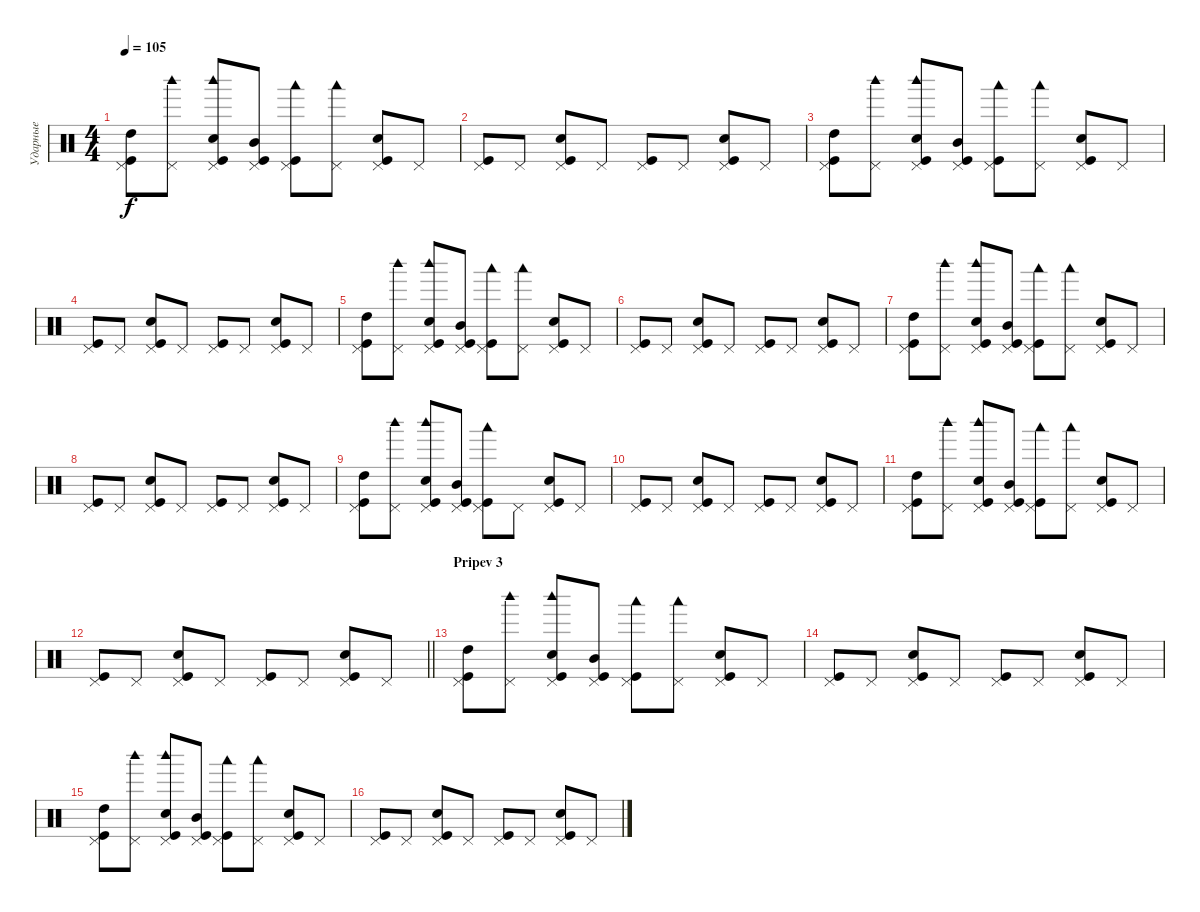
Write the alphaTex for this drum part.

\track ("Ударные" "Ударные") {instrument percussion}
\staff {score}
\articulation defaults
\ts (4 4)
\tempo 105
\clef neutral
\ks c
("Pedal Hi-Hat (hit)" "Kick (hit)" "High Tom (hit)").8{dy f} ("Pedal Hi-Hat (hit)" "Woodblock high (hit)").8 ("Pedal Hi-Hat (hit)" "Kick (hit)" "Snare (hit) 2" "Woodblock high (hit)").8 ("Pedal Hi-Hat (hit)" "Kick (hit)" "Mid Tom (hit)").8 ("Pedal Hi-Hat (hit)" "Kick (hit)" "Woodblock low (hit)").8 ("Pedal Hi-Hat (hit)" "Woodblock low (hit)").8 ("Pedal Hi-Hat (hit)" "Kick (hit)" "Snare (hit) 2").8 "Pedal Hi-Hat (hit)".8 |
("Pedal Hi-Hat (hit)" "Kick (hit)").8 "Pedal Hi-Hat (hit)".8 ("Pedal Hi-Hat (hit)" "Kick (hit)" "Snare (hit) 2").8 "Pedal Hi-Hat (hit)".8 ("Pedal Hi-Hat (hit)" "Kick (hit)").8 "Pedal Hi-Hat (hit)".8 ("Pedal Hi-Hat (hit)" "Kick (hit)" "Snare (hit) 2").8 "Pedal Hi-Hat (hit)".8 |
("Pedal Hi-Hat (hit)" "Kick (hit)" "High Tom (hit)").8 ("Pedal Hi-Hat (hit)" "Woodblock high (hit)").8 ("Pedal Hi-Hat (hit)" "Kick (hit)" "Woodblock high (hit)" "Snare (hit) 2").8 ("Pedal Hi-Hat (hit)" "Kick (hit)" "Mid Tom (hit)").8 ("Pedal Hi-Hat (hit)" "Kick (hit)" "Woodblock low (hit)").8 ("Pedal Hi-Hat (hit)" "Woodblock low (hit)").8 ("Pedal Hi-Hat (hit)" "Kick (hit)" "Snare (hit) 2").8 "Pedal Hi-Hat (hit)".8 |
("Pedal Hi-Hat (hit)" "Kick (hit)").8 "Pedal Hi-Hat (hit)".8 ("Pedal Hi-Hat (hit)" "Kick (hit)" "Snare (hit) 2").8 "Pedal Hi-Hat (hit)".8 ("Pedal Hi-Hat (hit)" "Kick (hit)").8 "Pedal Hi-Hat (hit)".8 ("Pedal Hi-Hat (hit)" "Kick (hit)" "Snare (hit) 2").8 "Pedal Hi-Hat (hit)".8 |
("Pedal Hi-Hat (hit)" "Kick (hit)" "High Tom (hit)").8 ("Pedal Hi-Hat (hit)" "Woodblock high (hit)").8 ("Pedal Hi-Hat (hit)" "Kick (hit)" "Snare (hit) 2" "Woodblock high (hit)").8 ("Pedal Hi-Hat (hit)" "Kick (hit)" "Mid Tom (hit)").8 ("Pedal Hi-Hat (hit)" "Kick (hit)" "Woodblock low (hit)").8 ("Pedal Hi-Hat (hit)" "Woodblock low (hit)").8 ("Pedal Hi-Hat (hit)" "Kick (hit)" "Snare (hit) 2").8 "Pedal Hi-Hat (hit)".8 |
("Pedal Hi-Hat (hit)" "Kick (hit)").8 "Pedal Hi-Hat (hit)".8 ("Pedal Hi-Hat (hit)" "Kick (hit)" "Snare (hit) 2").8 "Pedal Hi-Hat (hit)".8 ("Pedal Hi-Hat (hit)" "Kick (hit)").8 "Pedal Hi-Hat (hit)".8 ("Pedal Hi-Hat (hit)" "Kick (hit)" "Snare (hit) 2").8 "Pedal Hi-Hat (hit)".8 |
("Pedal Hi-Hat (hit)" "Kick (hit)" "High Tom (hit)").8 ("Pedal Hi-Hat (hit)" "Woodblock high (hit)").8 ("Pedal Hi-Hat (hit)" "Kick (hit)" "Snare (hit) 2" "Woodblock high (hit)").8 ("Pedal Hi-Hat (hit)" "Kick (hit)" "Mid Tom (hit)").8 ("Pedal Hi-Hat (hit)" "Kick (hit)" "Woodblock low (hit)").8 ("Pedal Hi-Hat (hit)" "Woodblock low (hit)").8 ("Pedal Hi-Hat (hit)" "Kick (hit)" "Snare (hit) 2").8 "Pedal Hi-Hat (hit)".8 |
("Pedal Hi-Hat (hit)" "Kick (hit)").8 "Pedal Hi-Hat (hit)".8 ("Pedal Hi-Hat (hit)" "Kick (hit)" "Snare (hit) 2").8 "Pedal Hi-Hat (hit)".8 ("Pedal Hi-Hat (hit)" "Kick (hit)").8 "Pedal Hi-Hat (hit)".8 ("Pedal Hi-Hat (hit)" "Kick (hit)" "Snare (hit) 2").8 "Pedal Hi-Hat (hit)".8 |
("Pedal Hi-Hat (hit)" "Kick (hit)" "High Tom (hit)").8 ("Pedal Hi-Hat (hit)" "Woodblock high (hit)").8 ("Pedal Hi-Hat (hit)" "Kick (hit)" "Snare (hit) 2" "Woodblock high (hit)").8 ("Pedal Hi-Hat (hit)" "Kick (hit)" "Mid Tom (hit)").8 ("Pedal Hi-Hat (hit)" "Kick (hit)" "Woodblock low (hit)").8 "Pedal Hi-Hat (hit)".8 ("Pedal Hi-Hat (hit)" "Kick (hit)" "Snare (hit) 2").8 "Pedal Hi-Hat (hit)".8 |
("Pedal Hi-Hat (hit)" "Kick (hit)").8 "Pedal Hi-Hat (hit)".8 ("Pedal Hi-Hat (hit)" "Kick (hit)" "Snare (hit) 2").8 "Pedal Hi-Hat (hit)".8 ("Pedal Hi-Hat (hit)" "Kick (hit)").8 "Pedal Hi-Hat (hit)".8 ("Pedal Hi-Hat (hit)" "Kick (hit)" "Snare (hit) 2").8 "Pedal Hi-Hat (hit)".8 |
("Pedal Hi-Hat (hit)" "Kick (hit)" "High Tom (hit)").8 ("Pedal Hi-Hat (hit)" "Woodblock high (hit)").8 ("Pedal Hi-Hat (hit)" "Kick (hit)" "Snare (hit) 2" "Woodblock high (hit)").8 ("Pedal Hi-Hat (hit)" "Kick (hit)" "Mid Tom (hit)").8 ("Pedal Hi-Hat (hit)" "Kick (hit)" "Woodblock low (hit)").8 ("Pedal Hi-Hat (hit)" "Woodblock low (hit)").8 ("Pedal Hi-Hat (hit)" "Kick (hit)" "Snare (hit) 2").8 "Pedal Hi-Hat (hit)".8 |
\barLineRight lightlight
("Pedal Hi-Hat (hit)" "Kick (hit)").8 "Pedal Hi-Hat (hit)".8 ("Pedal Hi-Hat (hit)" "Kick (hit)" "Snare (hit) 2").8 "Pedal Hi-Hat (hit)".8 ("Pedal Hi-Hat (hit)" "Kick (hit)").8 "Pedal Hi-Hat (hit)".8 ("Pedal Hi-Hat (hit)" "Kick (hit)" "Snare (hit) 2").8 "Pedal Hi-Hat (hit)".8 |
\section ("" "Pripev 3")
("Pedal Hi-Hat (hit)" "Kick (hit)" "High Tom (hit)").8 ("Pedal Hi-Hat (hit)" "Woodblock high (hit)").8 ("Pedal Hi-Hat (hit)" "Kick (hit)" "Snare (hit) 2" "Woodblock high (hit)").8 ("Pedal Hi-Hat (hit)" "Kick (hit)" "Mid Tom (hit)").8 ("Pedal Hi-Hat (hit)" "Kick (hit)" "Woodblock low (hit)").8 ("Pedal Hi-Hat (hit)" "Woodblock low (hit)").8 ("Pedal Hi-Hat (hit)" "Kick (hit)" "Snare (hit) 2").8 "Pedal Hi-Hat (hit)".8 |
("Pedal Hi-Hat (hit)" "Kick (hit)").8 "Pedal Hi-Hat (hit)".8 ("Pedal Hi-Hat (hit)" "Kick (hit)" "Snare (hit) 2").8 "Pedal Hi-Hat (hit)".8 ("Pedal Hi-Hat (hit)" "Kick (hit)").8 "Pedal Hi-Hat (hit)".8 ("Pedal Hi-Hat (hit)" "Kick (hit)" "Snare (hit) 2").8 "Pedal Hi-Hat (hit)".8 |
("Pedal Hi-Hat (hit)" "Kick (hit)" "High Tom (hit)").8 ("Pedal Hi-Hat (hit)" "Woodblock high (hit)").8 ("Pedal Hi-Hat (hit)" "Kick (hit)" "Snare (hit) 2" "Woodblock high (hit)").8 ("Pedal Hi-Hat (hit)" "Kick (hit)" "Mid Tom (hit)").8 ("Pedal Hi-Hat (hit)" "Kick (hit)" "Woodblock low (hit)").8 ("Pedal Hi-Hat (hit)" "Woodblock low (hit)").8 ("Pedal Hi-Hat (hit)" "Kick (hit)" "Snare (hit) 2").8 "Pedal Hi-Hat (hit)".8 |
("Pedal Hi-Hat (hit)" "Kick (hit)").8 "Pedal Hi-Hat (hit)".8 ("Pedal Hi-Hat (hit)" "Kick (hit)" "Snare (hit) 2").8 "Pedal Hi-Hat (hit)".8 ("Pedal Hi-Hat (hit)" "Kick (hit)").8 "Pedal Hi-Hat (hit)".8 ("Pedal Hi-Hat (hit)" "Kick (hit)" "Snare (hit) 2").8 "Pedal Hi-Hat (hit)".8
